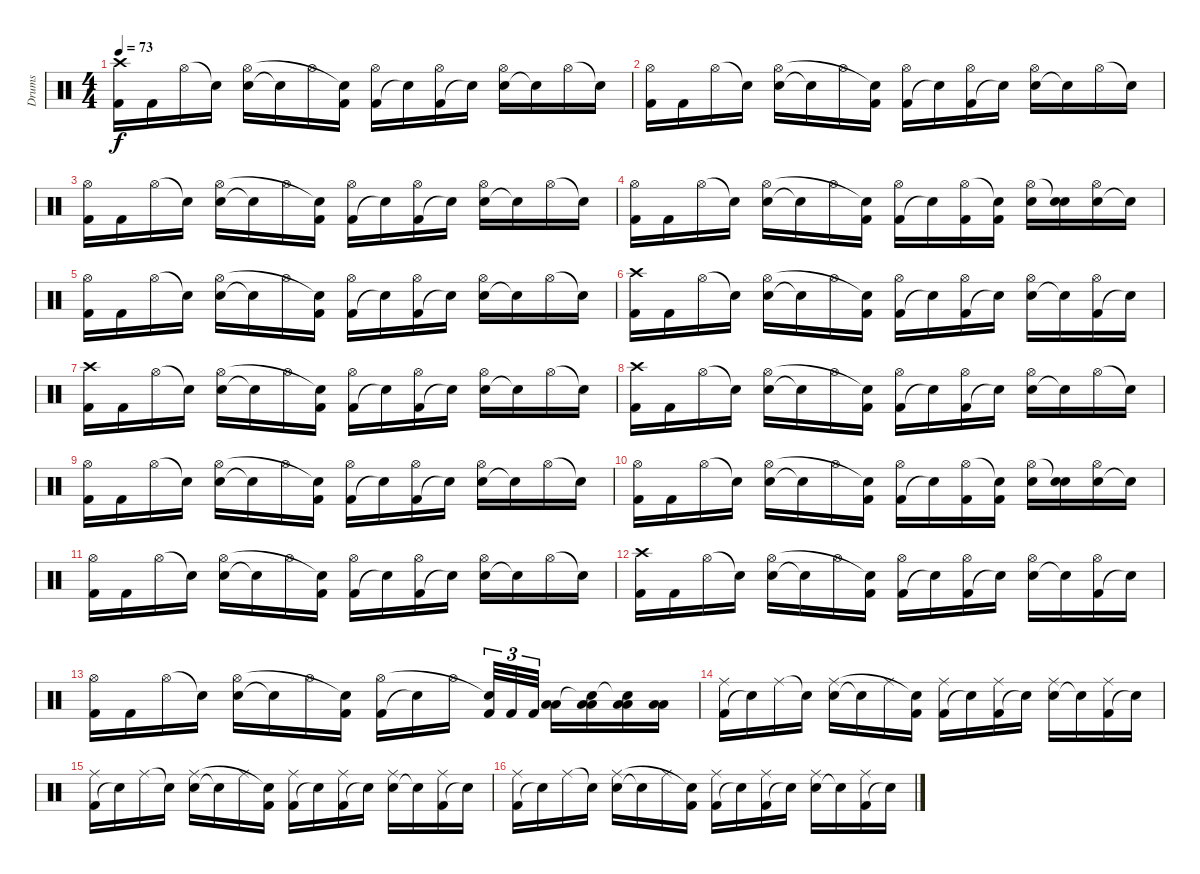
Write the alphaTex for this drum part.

\track ("Drums" "Drums") {instrument percussion}
\staff {score}
\articulation defaults
\ts (4 4)
\tempo 73
\clef neutral
\ks c
("Kick (hit) 2" "Crash high (hit)").16{dy f} "Kick (hit) 2".16 "Hi-Hat (open)".16 "Snare (hit)"{t}.16 ("Snare (hit) 2" "Hi-Hat (open)").16 "Snare (hit)"{t}.16 "Hi-Hat (open)".16 ("Kick (hit) 2" "Snare (hit)"{t}).16 ("Kick (hit) 2" "Hi-Hat (open)").16 "Snare (hit)"{t}.16 ("Kick (hit) 2" "Hi-Hat (open)").16 "Snare (hit)"{t}.16 ("Snare (hit) 2" "Hi-Hat (open)").16 "Snare (hit)"{t}.16 "Hi-Hat (open)".16 "Snare (hit)"{t}.16 |
("Kick (hit) 2" "Hi-Hat (open)").16 "Kick (hit) 2".16 "Hi-Hat (open)".16 "Snare (hit)"{t}.16 ("Snare (hit) 2" "Hi-Hat (open)").16 "Snare (hit)"{t}.16 "Hi-Hat (open)".16 ("Kick (hit) 2" "Snare (hit)"{t}).16 ("Kick (hit) 2" "Hi-Hat (open)").16 "Snare (hit)"{t}.16 ("Kick (hit) 2" "Hi-Hat (open)").16 "Snare (hit)"{t}.16 ("Snare (hit) 2" "Hi-Hat (open)").16 "Snare (hit)"{t}.16 "Hi-Hat (open)".16 "Snare (hit)"{t}.16 |
("Kick (hit) 2" "Hi-Hat (open)").16 "Kick (hit) 2".16 "Hi-Hat (open)".16 "Snare (hit)"{t}.16 ("Snare (hit) 2" "Hi-Hat (open)").16 "Snare (hit)"{t}.16 "Hi-Hat (open)".16 ("Kick (hit) 2" "Snare (hit)"{t}).16 ("Kick (hit) 2" "Hi-Hat (open)").16 "Snare (hit)"{t}.16 ("Kick (hit) 2" "Hi-Hat (open)").16 "Snare (hit)"{t}.16 ("Snare (hit) 2" "Hi-Hat (open)").16 "Snare (hit)"{t}.16 "Hi-Hat (open)".16 "Snare (hit)"{t}.16 |
("Kick (hit) 2" "Hi-Hat (open)").16 "Kick (hit) 2".16 "Hi-Hat (open)".16 "Snare (hit)"{t}.16 ("Snare (hit) 2" "Hi-Hat (open)").16 "Snare (hit)"{t}.16 "Hi-Hat (open)".16 ("Kick (hit) 2" "Snare (hit)"{t}).16 ("Kick (hit) 2" "Hi-Hat (open)").16 "Snare (hit)"{t}.16 ("Kick (hit) 2" "Hi-Hat (open)").16 ("Kick (hit) 2" "Snare (hit)"{t}).16 ("Snare (hit) 2" "Hi-Hat (open)").16 ("Snare (hit) 2" "Snare (hit)"{t}).16 ("Snare (hit) 2" "Hi-Hat (open)").16 "Snare (hit)"{t}.16 |
("Kick (hit) 2" "Hi-Hat (open)").16 "Kick (hit) 2".16 "Hi-Hat (open)".16 "Snare (hit)"{t}.16 ("Snare (hit) 2" "Hi-Hat (open)").16 "Snare (hit)"{t}.16 "Hi-Hat (open)".16 ("Kick (hit) 2" "Snare (hit)"{t}).16 ("Kick (hit) 2" "Hi-Hat (open)").16 "Snare (hit)"{t}.16 ("Kick (hit) 2" "Hi-Hat (open)").16 "Snare (hit)"{t}.16 ("Snare (hit) 2" "Hi-Hat (open)").16 "Snare (hit)"{t}.16 "Hi-Hat (open)".16 "Snare (hit)"{t}.16 |
("Kick (hit) 2" "Crash high (hit)").16 "Kick (hit) 2".16 "Hi-Hat (open)".16 "Snare (hit)"{t}.16 ("Snare (hit) 2" "Hi-Hat (open)").16 "Snare (hit)"{t}.16 "Hi-Hat (open)".16 ("Kick (hit) 2" "Snare (hit)"{t}).16 ("Kick (hit) 2" "Hi-Hat (open)").16 "Snare (hit)"{t}.16 ("Kick (hit) 2" "Hi-Hat (open)").16 "Snare (hit)"{t}.16 ("Snare (hit) 2" "Hi-Hat (open)").16 "Snare (hit)"{t}.16 ("Kick (hit) 2" "Hi-Hat (open)").16 "Snare (hit)"{t}.16 |
("Kick (hit) 2" "Crash high (hit)").16 "Kick (hit) 2".16 "Hi-Hat (open)".16 "Snare (hit)"{t}.16 ("Snare (hit) 2" "Hi-Hat (open)").16 "Snare (hit)"{t}.16 "Hi-Hat (open)".16 ("Kick (hit) 2" "Snare (hit)"{t}).16 ("Kick (hit) 2" "Hi-Hat (open)").16 "Snare (hit)"{t}.16 ("Kick (hit) 2" "Hi-Hat (open)").16 "Snare (hit)"{t}.16 ("Snare (hit) 2" "Hi-Hat (open)").16 "Snare (hit)"{t}.16 "Hi-Hat (open)".16 "Snare (hit)"{t}.16 |
("Kick (hit) 2" "Crash high (hit)").16 "Kick (hit) 2".16 "Hi-Hat (open)".16 "Snare (hit)"{t}.16 ("Snare (hit) 2" "Hi-Hat (open)").16 "Snare (hit)"{t}.16 "Hi-Hat (open)".16 ("Kick (hit) 2" "Snare (hit)"{t}).16 ("Kick (hit) 2" "Hi-Hat (open)").16 "Snare (hit)"{t}.16 ("Kick (hit) 2" "Hi-Hat (open)").16 "Snare (hit)"{t}.16 ("Snare (hit) 2" "Hi-Hat (open)").16 "Snare (hit)"{t}.16 "Hi-Hat (open)".16 "Snare (hit)"{t}.16 |
("Kick (hit) 2" "Hi-Hat (open)").16 "Kick (hit) 2".16 "Hi-Hat (open)".16 "Snare (hit)"{t}.16 ("Snare (hit) 2" "Hi-Hat (open)").16 "Snare (hit)"{t}.16 "Hi-Hat (open)".16 ("Kick (hit) 2" "Snare (hit)"{t}).16 ("Kick (hit) 2" "Hi-Hat (open)").16 "Snare (hit)"{t}.16 ("Kick (hit) 2" "Hi-Hat (open)").16 "Snare (hit)"{t}.16 ("Snare (hit) 2" "Hi-Hat (open)").16 "Snare (hit)"{t}.16 "Hi-Hat (open)".16 "Snare (hit)"{t}.16 |
("Kick (hit) 2" "Hi-Hat (open)").16 "Kick (hit) 2".16 "Hi-Hat (open)".16 "Snare (hit)"{t}.16 ("Snare (hit) 2" "Hi-Hat (open)").16 "Snare (hit)"{t}.16 "Hi-Hat (open)".16 ("Kick (hit) 2" "Snare (hit)"{t}).16 ("Kick (hit) 2" "Hi-Hat (open)").16 "Snare (hit)"{t}.16 ("Kick (hit) 2" "Hi-Hat (open)").16 ("Kick (hit) 2" "Snare (hit)"{t}).16 ("Snare (hit) 2" "Hi-Hat (open)").16 ("Snare (hit) 2" "Snare (hit)"{t}).16 ("Snare (hit) 2" "Hi-Hat (open)").16 "Snare (hit)"{t}.16 |
("Kick (hit) 2" "Hi-Hat (open)").16 "Kick (hit) 2".16 "Hi-Hat (open)".16 "Snare (hit)"{t}.16 ("Snare (hit) 2" "Hi-Hat (open)").16 "Snare (hit)"{t}.16 "Hi-Hat (open)".16 ("Kick (hit) 2" "Snare (hit)"{t}).16 ("Kick (hit) 2" "Hi-Hat (open)").16 "Snare (hit)"{t}.16 ("Kick (hit) 2" "Hi-Hat (open)").16 "Snare (hit)"{t}.16 ("Snare (hit) 2" "Hi-Hat (open)").16 "Snare (hit)"{t}.16 "Hi-Hat (open)".16 "Snare (hit)"{t}.16 |
("Kick (hit) 2" "Crash high (hit)").16 "Kick (hit) 2".16 "Hi-Hat (open)".16 "Snare (hit)"{t}.16 ("Snare (hit) 2" "Hi-Hat (open)").16 "Snare (hit)"{t}.16 "Hi-Hat (open)".16 ("Kick (hit) 2" "Snare (hit)"{t}).16 ("Kick (hit) 2" "Hi-Hat (open)").16 "Snare (hit)"{t}.16 ("Kick (hit) 2" "Hi-Hat (open)").16 "Snare (hit)"{t}.16 ("Snare (hit) 2" "Hi-Hat (open)").16 "Snare (hit)"{t}.16 ("Kick (hit) 2" "Hi-Hat (open)").16 "Snare (hit)"{t}.16 |
("Kick (hit) 2" "Hi-Hat (open)").16 "Kick (hit) 2".16 "Hi-Hat (open)".16 "Snare (hit)"{t}.16 ("Snare (hit) 2" "Hi-Hat (open)").16 "Snare (hit)"{t}.16 "Hi-Hat (open)".16 ("Kick (hit) 2" "Snare (hit)"{t}).16 ("Kick (hit) 2" "Hi-Hat (open)").16 "Snare (hit)"{t}.16 "Hi-Hat (open)".16 ("Kick (hit) 2" "Snare (hit)"{t}).32{tu (3 2)} "Kick (hit) 2".32{tu (3 2)} "Kick (hit) 2".32{tu (3 2)} ("Low Floor Tom (hit)" "Low Floor Tom (hit)").16 ("Snare (hit)"{t} "Low Floor Tom (hit)" "Low Floor Tom (hit)").16 ("Snare (hit)"{t} "Low Floor Tom (hit)" "Low Floor Tom (hit)").16 ("Low Floor Tom (hit)" "Low Floor Tom (hit)").16 |
("Kick (hit) 2" "Ride (middle)").16 "Snare (hit)"{t}.16 "Ride (middle)".16 "Snare (hit)"{t}.16 ("Snare (hit) 2" "Ride (middle)").16 "Snare (hit)"{t}.16 "Ride (middle)".16 ("Kick (hit) 2" "Snare (hit)"{t}).16 ("Kick (hit) 2" "Ride (middle)").16 "Snare (hit)"{t}.16 ("Kick (hit) 2" "Ride (middle)").16 "Snare (hit)"{t}.16 ("Snare (hit) 2" "Ride (middle)").16 "Snare (hit)"{t}.16 ("Kick (hit) 2" "Ride (middle)").16 "Snare (hit)"{t}.16 |
("Kick (hit) 2" "Ride (middle)").16 "Snare (hit)"{t}.16 "Ride (middle)".16 "Snare (hit)"{t}.16 ("Snare (hit) 2" "Ride (middle)").16 "Snare (hit)"{t}.16 "Ride (middle)".16 ("Kick (hit) 2" "Snare (hit)"{t}).16 ("Kick (hit) 2" "Ride (middle)").16 "Snare (hit)"{t}.16 ("Kick (hit) 2" "Ride (middle)").16 "Snare (hit)"{t}.16 ("Snare (hit) 2" "Ride (middle)").16 "Snare (hit)"{t}.16 ("Kick (hit) 2" "Ride (middle)").16 "Snare (hit)"{t}.16 |
("Kick (hit) 2" "Ride (middle)").16 "Snare (hit)"{t}.16 "Ride (middle)".16 "Snare (hit)"{t}.16 ("Snare (hit) 2" "Ride (middle)").16 "Snare (hit)"{t}.16 "Ride (middle)".16 ("Kick (hit) 2" "Snare (hit)"{t}).16 ("Kick (hit) 2" "Ride (middle)").16 "Snare (hit)"{t}.16 ("Kick (hit) 2" "Ride (middle)").16 "Snare (hit)"{t}.16 ("Snare (hit) 2" "Ride (middle)").16 "Snare (hit)"{t}.16 ("Kick (hit) 2" "Ride (middle)").16 "Snare (hit)"{t}.16
